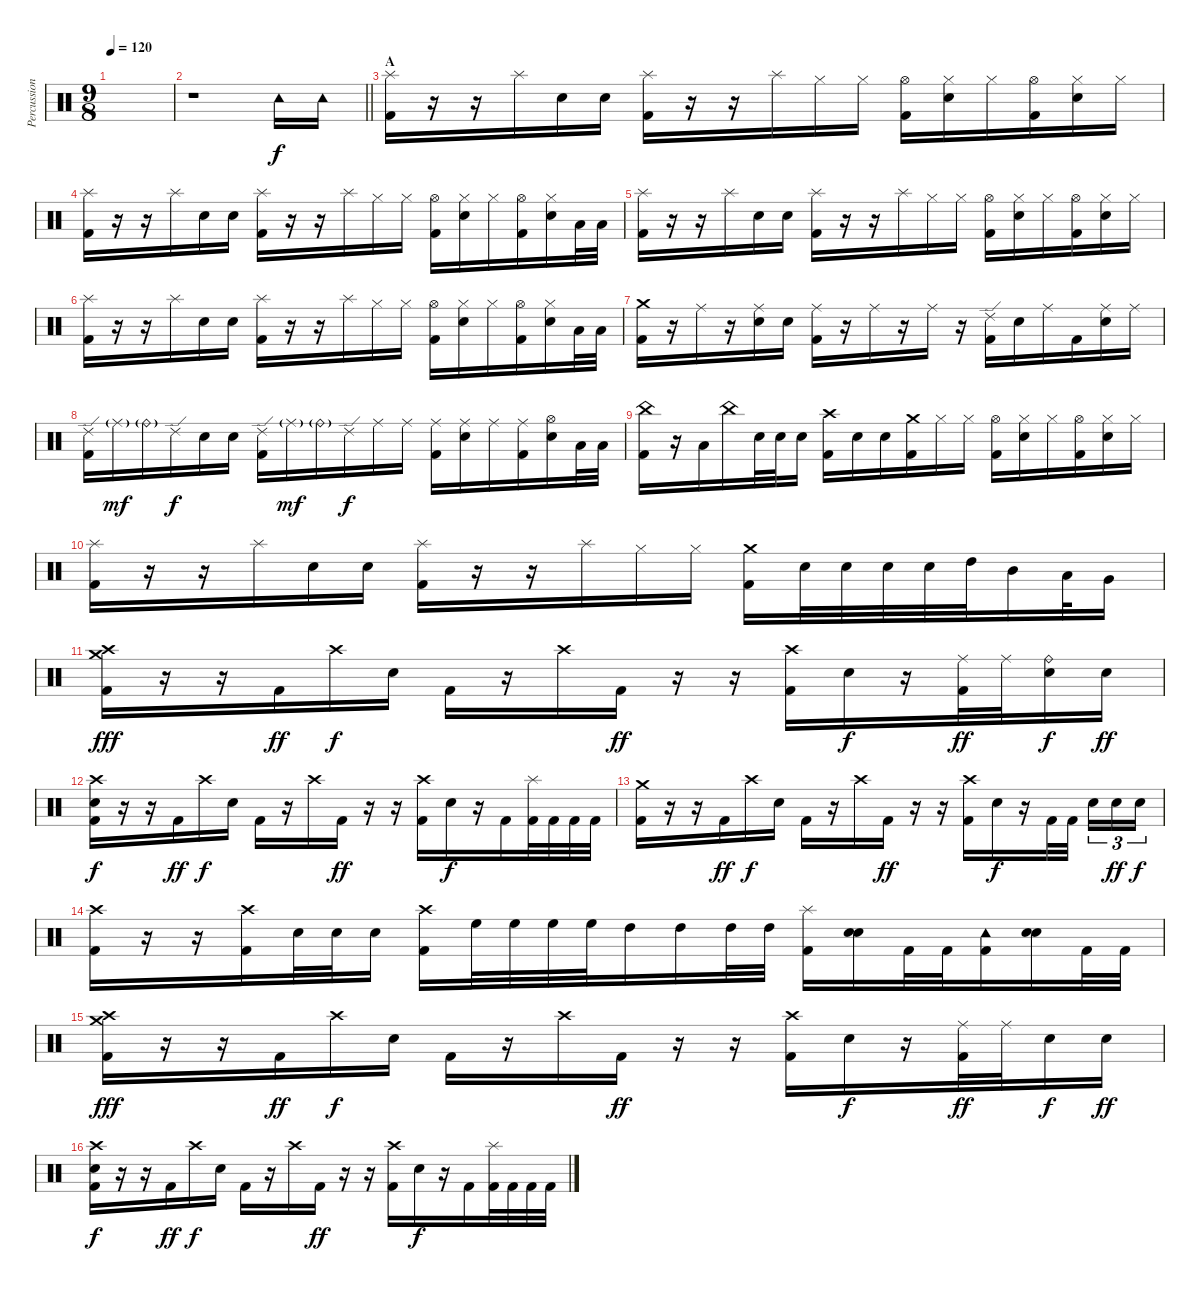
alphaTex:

\track ("Percussion" "Percussion") {instrument percussion}
\staff {score}
\articulation defaults
\ts (9 8)
\tempo 120
\clef neutral
\ks c
|
\barLineRight lightlight
r.1 "Tambourine (hit)".16 "Tambourine (hit)".16 |
\section ("" "A")
("Splash (hit)" "Kick (hit) 2").16 r.16 r.16 "Splash (hit)".16 "Electric Snare (hit)".16 "Electric Snare (hit)".16 ("Splash (hit)" "Kick (hit) 2").16 r.16 r.16 "Splash (hit)".16 "Hi-Hat (closed)".16 "Hi-Hat (closed)".16 ("Hi-Hat (open)" "Kick (hit) 2").16 ("Hi-Hat (closed)" "Electric Snare (hit)").16 "Hi-Hat (closed)".16 ("Hi-Hat (open)" "Kick (hit) 2").16 ("Hi-Hat (closed)" "Electric Snare (hit)").16 "Hi-Hat (closed)".16 |
("Splash (hit)" "Kick (hit) 2").16 r.16 r.16 "Splash (hit)".16 "Electric Snare (hit)".16 "Electric Snare (hit)".16 ("Splash (hit)" "Kick (hit) 2").16 r.16 r.16 "Splash (hit)".16 "Hi-Hat (closed)".16 "Hi-Hat (closed)".16 ("Hi-Hat (open)" "Kick (hit) 2").16 ("Hi-Hat (closed)" "Electric Snare (hit)").16 "Hi-Hat (closed)".16 ("Hi-Hat (open)" "Kick (hit) 2").16 ("Hi-Hat (closed)" "Electric Snare (hit)").16 "Low Floor Tom (hit)".32 "Low Floor Tom (hit)".32 |
("Splash (hit)" "Kick (hit) 2").16 r.16 r.16 "Splash (hit)".16 "Electric Snare (hit)".16 "Electric Snare (hit)".16 ("Splash (hit)" "Kick (hit) 2").16 r.16 r.16 "Splash (hit)".16 "Hi-Hat (closed)".16 "Hi-Hat (closed)".16 ("Hi-Hat (open)" "Kick (hit) 2").16 ("Hi-Hat (closed)" "Electric Snare (hit)").16 "Hi-Hat (closed)".16 ("Hi-Hat (open)" "Kick (hit) 2").16 ("Hi-Hat (closed)" "Electric Snare (hit)").16 "Hi-Hat (closed)".16 |
("Splash (hit)" "Kick (hit) 2").16 r.16 r.16 "Splash (hit)".16 "Electric Snare (hit)".16 "Electric Snare (hit)".16 ("Splash (hit)" "Kick (hit) 2").16 r.16 r.16 "Splash (hit)".16 "Hi-Hat (closed)".16 "Hi-Hat (closed)".16 ("Hi-Hat (open)" "Kick (hit) 2").16 ("Hi-Hat (closed)" "Electric Snare (hit)").16 "Hi-Hat (closed)".16 ("Hi-Hat (open)" "Kick (hit) 2").16 ("Hi-Hat (closed)" "Electric Snare (hit)").16 "Low Floor Tom (hit)".32 "Low Floor Tom (hit)".32 |
("Crash medium (hit)" "Kick (hit) 2").16 r.16 "Ride (middle)".16 r.16 ("Ride (middle)" "Electric Snare (hit)").16 "Electric Snare (hit)".16 ("Ride (middle)" "Kick (hit) 2").16 r.16 "Ride (middle)".16 r.16 "Ride (middle)".16 r.16 ("Ride (edge) 2" "Kick (hit) 2").16 "Electric Snare (hit)".16 "Ride (middle)".16 "Kick (hit) 2".16 ("Ride (middle)" "Electric Snare (hit)").16 "Ride (middle)".16 |
("Ride (edge) 2" "Kick (hit) 2").16 "Ride (middle)"{g}.16{dy mf} "Ride (bell)"{g}.16 "Ride (edge) 2".16{dy f} "Electric Snare (hit)".16 "Electric Snare (hit)".16 ("Ride (edge) 2" "Kick (hit) 2").16 "Ride (middle)"{g}.16{dy mf} "Ride (bell)"{g}.16 "Ride (edge) 2".16{dy f} "Ride (middle)".16 "Ride (middle)".16 ("Ride (middle)" "Kick (hit) 2").16 ("Ride (middle)" "Electric Snare (hit)").16 "Ride (middle)".16 ("Ride (middle)" "Kick (hit) 2").16 ("Hi-Hat (open)" "Electric Snare (hit)").16 "Low Floor Tom (hit)".32 "Low Floor Tom (hit)".32 |
("China (hit)" "Kick (hit) 2").16 r.16 "Low Tom (hit)".16 "China (hit)".16 "Electric Snare (hit)".32 "Electric Snare (hit)".32 "Electric Snare (hit)".16 ("Crash high (hit)" "Kick (hit) 2").16 "Electric Snare (hit)".16 "Electric Snare (hit)".16 ("Crash medium (hit)" "Kick (hit) 2").16 "Hi-Hat (closed)".16 "Hi-Hat (closed)".16 ("Hi-Hat (open)" "Kick (hit) 2").16 ("Hi-Hat (closed)" "Electric Snare (hit)").16 "Hi-Hat (closed)".16 ("Hi-Hat (open)" "Kick (hit) 2").16 ("Hi-Hat (closed)" "Electric Snare (hit)").16 "Hi-Hat (closed)".16 |
("Splash (hit)" "Kick (hit) 2").16 r.16 r.16 "Splash (hit)".16 "Electric Snare (hit)".16 "Electric Snare (hit)".16 ("Splash (hit)" "Kick (hit) 2").16 r.16 r.16 "Splash (hit)".16 "Hi-Hat (closed)".16 "Hi-Hat (closed)".16 ("Crash medium (hit)" "Kick (hit) 2").16 "Electric Snare (hit)".32 "Electric Snare (hit)".32 "Electric Snare (hit)".32 "Electric Snare (hit)".32 "High Tom (hit)".32 "Mid Tom (hit)".16 "Low Tom (hit)".32 "Very Low Tom (hit)".16 |
("Crash high (hit)" "Crash medium (hit)" "Kick (hit) 2").16{dy fff} r.16 r.16 "Kick (hit) 2".16{dy ff} "Crash high (hit)".16{dy f} "Electric Snare (hit)".16 "Kick (hit) 2".16 r.16 "Crash high (hit)".16 "Kick (hit) 2".16{dy ff} r.16 r.16 ("Crash high (hit)" "Kick (hit) 2").16 "Electric Snare (hit)".16{dy f} r.16 ("Ride (middle)" "Kick (hit) 2").32{dy ff} "Ride (middle)".32 ("Ride (bell)" "Electric Snare (hit)").16{bd 60 dy f} "Electric Snare (hit)".16{dy ff} |
("Crash high (hit)" "Electric Snare (hit)" "Kick (hit) 2").16{dy f} r.16 r.16 "Kick (hit) 2".16{dy ff} "Crash high (hit)".16{dy f} "Electric Snare (hit)".16 "Kick (hit) 2".16 r.16 "Crash high (hit)".16 "Kick (hit) 2".16{dy ff} r.16 r.16 ("Crash high (hit)" "Kick (hit) 2").16 "Electric Snare (hit)".16{dy f} r.16 "Kick (hit) 2".16 ("Splash (hit)" "Kick (hit) 2").32 "Kick (hit) 2".32 "Kick (hit) 2".32 "Kick (hit) 2".32 |
("Crash medium (hit)" "Kick (hit) 2").16 r.16 r.16 "Kick (hit) 2".16{dy ff} "Crash high (hit)".16{dy f} "Electric Snare (hit)".16 "Kick (hit) 2".16 r.16 "Crash high (hit)".16 "Kick (hit) 2".16{dy ff} r.16 r.16 ("Crash high (hit)" "Kick (hit) 2").16 "Electric Snare (hit)".16{dy f} r.16 "Kick (hit) 2".32 "Kick (hit) 2".32 "Electric Snare (hit)".16{tu (3 2)} "Electric Snare (hit)".16{tu (3 2) dy ff} "Electric Snare (hit)".16{tu (3 2) dy f} |
("Crash high (hit)" "Kick (hit) 2").16 r.16 r.16 ("Crash high (hit)" "Kick (hit) 2").16 "Electric Snare (hit)".32 "Electric Snare (hit)".32 "Electric Snare (hit)".16 ("Crash high (hit)" "Kick (hit) 2").16 "High Floor Tom (hit)".32 "High Floor Tom (hit)".32 "High Floor Tom (hit)".32 "High Floor Tom (hit)".32 "High Tom (hit)".16 "High Tom (hit)".16 "High Tom (hit)".32 "High Tom (hit)".32 ("Splash (hit)" "Kick (hit) 2").16 ("Electric Snare (hit)" "Electric Snare (hit)").16{bd 60} "Kick (hit) 2".32 "Kick (hit) 2".32 ("Tambourine (hit)" "Kick (hit) 2").16 ("Electric Snare (hit)" "Electric Snare (hit)").16{bd 60} "Kick (hit) 2".32 "Kick (hit) 2".32 |
("Crash high (hit)" "Crash medium (hit)" "Kick (hit) 2").16{dy fff} r.16 r.16 "Kick (hit) 2".16{dy ff} "Crash high (hit)".16{dy f} "Electric Snare (hit)".16 "Kick (hit) 2".16 r.16 "Crash high (hit)".16 "Kick (hit) 2".16{dy ff} r.16 r.16 ("Crash high (hit)" "Kick (hit) 2").16 "Electric Snare (hit)".16{dy f} r.16 ("Ride (middle)" "Kick (hit) 2").32{dy ff} "Ride (middle)".32 "Electric Snare (hit)".16{dy f} "Electric Snare (hit)".16{dy ff} |
("Crash high (hit)" "Electric Snare (hit)" "Kick (hit) 2").16{dy f} r.16 r.16 "Kick (hit) 2".16{dy ff} "Crash high (hit)".16{dy f} "Electric Snare (hit)".16 "Kick (hit) 2".16 r.16 "Crash high (hit)".16 "Kick (hit) 2".16{dy ff} r.16 r.16 ("Crash high (hit)" "Kick (hit) 2").16 "Electric Snare (hit)".16{dy f} r.16 "Kick (hit) 2".16 ("Splash (hit)" "Kick (hit) 2").32 "Kick (hit) 2".32 "Kick (hit) 2".32 "Kick (hit) 2".32
